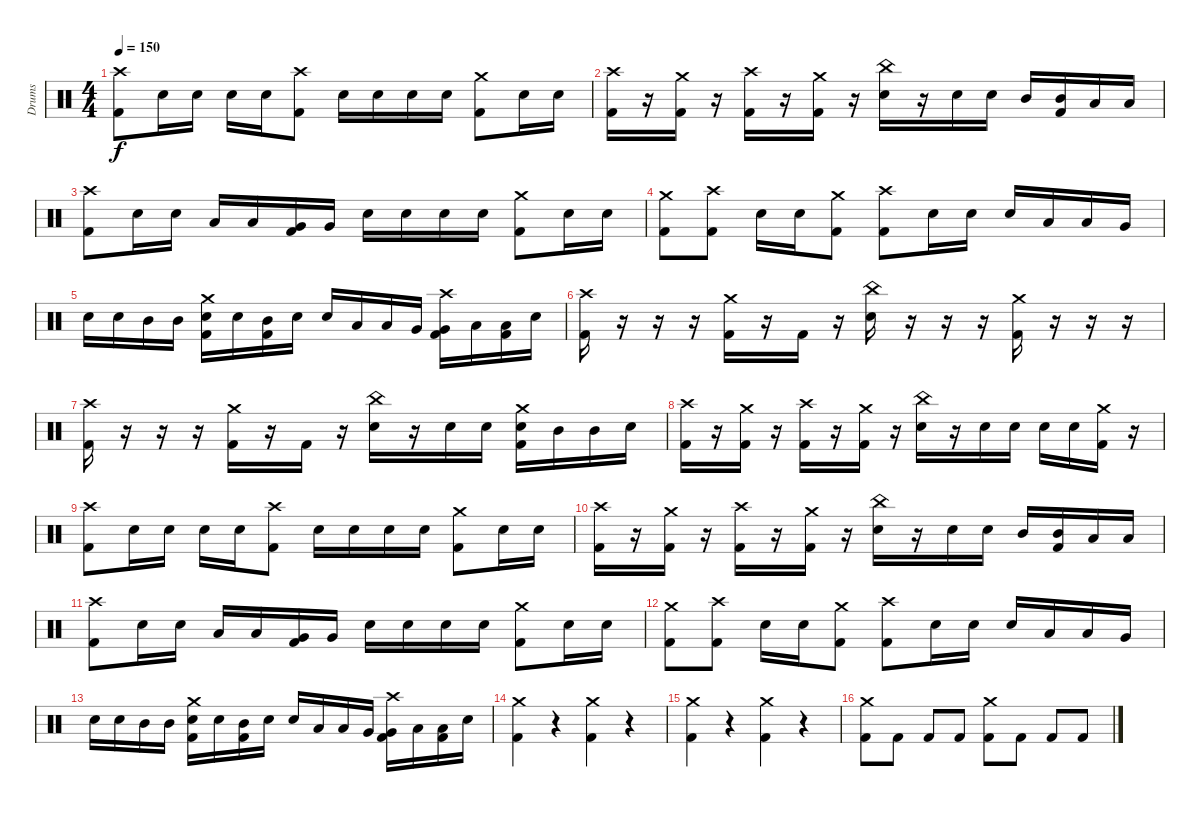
\track ("Drums" "Drums") {instrument percussion}
\staff {score}
\articulation defaults
\ts (4 4)
\tempo 150
\clef neutral
\ks c
("Crash high (hit)" "Kick (hit) 2").8{dy f} "Electric Snare (hit)".16 "Electric Snare (hit)".16 "Electric Snare (hit)".16 "Electric Snare (hit)".16 ("Crash high (hit)" "Kick (hit) 2").8 "Electric Snare (hit)".16 "Electric Snare (hit)".16 "Electric Snare (hit)".16 "Electric Snare (hit)".16 ("Crash medium (hit)" "Kick (hit) 2").8 "Electric Snare (hit)".16 "Electric Snare (hit)".16 |
("Crash high (hit)" "Kick (hit) 2").16 r.16 ("Crash medium (hit)" "Kick (hit) 2").16 r.16 ("Crash high (hit)" "Kick (hit) 2").16 r.16 ("Crash medium (hit)" "Kick (hit) 2").16 r.16 ("China (hit)" "Electric Snare (hit)").16 r.16 "Electric Snare (hit)".16 "Electric Snare (hit)".16 "Mid Tom (hit)".16 ("Mid Tom (hit)" "Kick (hit) 2").16 "Low Tom (hit)".16 "Low Tom (hit)".16 |
("Crash high (hit)" "Kick (hit) 2").8 "Electric Snare (hit)".16 "Electric Snare (hit)".16 "Low Tom (hit)".16 "Low Tom (hit)".16 ("Very Low Tom (hit)" "Kick (hit) 2").16 "Very Low Tom (hit)".16 "Electric Snare (hit)".16 "Electric Snare (hit)".16 "Electric Snare (hit)".16 "Electric Snare (hit)".16 ("Crash medium (hit)" "Kick (hit) 2").8 "Electric Snare (hit)".16 "Electric Snare (hit)".16 |
("Crash medium (hit)" "Kick (hit) 2").8 ("Crash high (hit)" "Kick (hit) 2").8 "Electric Snare (hit)".16 "Electric Snare (hit)".16 ("Crash medium (hit)" "Kick (hit) 2").8 ("Crash high (hit)" "Kick (hit) 2").8 "Electric Snare (hit)".16 "Electric Snare (hit)".16 "Electric Snare (hit)".16 "Low Tom (hit)".16 "Low Tom (hit)".16 "Very Low Tom (hit)".16 |
"Electric Snare (hit)".16 "Electric Snare (hit)".16 "Mid Tom (hit)".16 "Mid Tom (hit)".16 ("Crash medium (hit)" "Electric Snare (hit)" "Kick (hit) 2").16 "Electric Snare (hit)".16 ("Mid Tom (hit)" "Kick (hit) 2").16 "Electric Snare (hit)".16 "Electric Snare (hit)".16 "Low Tom (hit)".16 "Low Tom (hit)".16 "Very Low Tom (hit)".16 ("Crash high (hit)" "Very Low Tom (hit)" "Kick (hit) 2").16 "Low Floor Tom (hit)".16 ("Low Floor Tom (hit)" "Kick (hit) 2").16 "Electric Snare (hit)".16 |
("Crash high (hit)" "Kick (hit) 2").16 r.16 r.16 r.16 ("Crash medium (hit)" "Kick (hit) 2").16 r.16 "Kick (hit) 2".16 r.16 ("China (hit)" "Electric Snare (hit)").16 r.16 r.16 r.16 ("Crash medium (hit)" "Kick (hit) 2").16 r.16 r.16 r.16 |
("Crash high (hit)" "Kick (hit) 2").16 r.16 r.16 r.16 ("Crash medium (hit)" "Kick (hit) 2").16 r.16 "Kick (hit) 2".16 r.16 ("China (hit)" "Electric Snare (hit)").16 r.16 "Electric Snare (hit)".16 "Electric Snare (hit)".16 ("Crash medium (hit)" "Electric Snare (hit)" "Kick (hit) 2").16 "Mid Tom (hit)".16 "Mid Tom (hit)".16 "Electric Snare (hit)".16 |
("Crash high (hit)" "Kick (hit) 2").16 r.16 ("Crash medium (hit)" "Kick (hit) 2").16 r.16 ("Crash high (hit)" "Kick (hit) 2").16 r.16 ("Crash medium (hit)" "Kick (hit) 2").16 r.16 ("China (hit)" "Electric Snare (hit)").16 r.16 "Electric Snare (hit)".16 "Electric Snare (hit)".16 "Electric Snare (hit)".16 "Electric Snare (hit)".16 ("Crash medium (hit)" "Kick (hit) 2").16 r.16 |
("Crash high (hit)" "Kick (hit) 2").8 "Electric Snare (hit)".16 "Electric Snare (hit)".16 "Electric Snare (hit)".16 "Electric Snare (hit)".16 ("Crash high (hit)" "Kick (hit) 2").8 "Electric Snare (hit)".16 "Electric Snare (hit)".16 "Electric Snare (hit)".16 "Electric Snare (hit)".16 ("Crash medium (hit)" "Kick (hit) 2").8 "Electric Snare (hit)".16 "Electric Snare (hit)".16 |
("Crash high (hit)" "Kick (hit) 2").16 r.16 ("Crash medium (hit)" "Kick (hit) 2").16 r.16 ("Crash high (hit)" "Kick (hit) 2").16 r.16 ("Crash medium (hit)" "Kick (hit) 2").16 r.16 ("China (hit)" "Electric Snare (hit)").16 r.16 "Electric Snare (hit)".16 "Electric Snare (hit)".16 "Mid Tom (hit)".16 ("Mid Tom (hit)" "Kick (hit) 2").16 "Low Tom (hit)".16 "Low Tom (hit)".16 |
("Crash high (hit)" "Kick (hit) 2").8 "Electric Snare (hit)".16 "Electric Snare (hit)".16 "Low Tom (hit)".16 "Low Tom (hit)".16 ("Very Low Tom (hit)" "Kick (hit) 2").16 "Very Low Tom (hit)".16 "Electric Snare (hit)".16 "Electric Snare (hit)".16 "Electric Snare (hit)".16 "Electric Snare (hit)".16 ("Crash medium (hit)" "Kick (hit) 2").8 "Electric Snare (hit)".16 "Electric Snare (hit)".16 |
("Crash medium (hit)" "Kick (hit) 2").8 ("Crash high (hit)" "Kick (hit) 2").8 "Electric Snare (hit)".16 "Electric Snare (hit)".16 ("Crash medium (hit)" "Kick (hit) 2").8 ("Crash high (hit)" "Kick (hit) 2").8 "Electric Snare (hit)".16 "Electric Snare (hit)".16 "Electric Snare (hit)".16 "Low Tom (hit)".16 "Low Tom (hit)".16 "Very Low Tom (hit)".16 |
"Electric Snare (hit)".16 "Electric Snare (hit)".16 "Mid Tom (hit)".16 "Mid Tom (hit)".16 ("Crash medium (hit)" "Electric Snare (hit)" "Kick (hit) 2").16 "Electric Snare (hit)".16 ("Mid Tom (hit)" "Kick (hit) 2").16 "Electric Snare (hit)".16 "Electric Snare (hit)".16 "Low Tom (hit)".16 "Low Tom (hit)".16 "Very Low Tom (hit)".16 ("Crash high (hit)" "Very Low Tom (hit)" "Kick (hit) 2").16 "Low Floor Tom (hit)".16 ("Low Floor Tom (hit)" "Kick (hit) 2").16 "Electric Snare (hit)".16 |
("Crash medium (hit)" "Kick (hit) 2").4 r.4 ("Crash medium (hit)" "Kick (hit) 2").4 r.4 |
("Crash medium (hit)" "Kick (hit) 2").4 r.4 ("Crash medium (hit)" "Kick (hit) 2").4 r.4 |
("Crash medium (hit)" "Kick (hit) 2").8 "Kick (hit) 2".8 "Kick (hit) 2".8 "Kick (hit) 2".8 ("Crash medium (hit)" "Kick (hit) 2").8 "Kick (hit) 2".8 "Kick (hit) 2".8 "Kick (hit) 2".8
